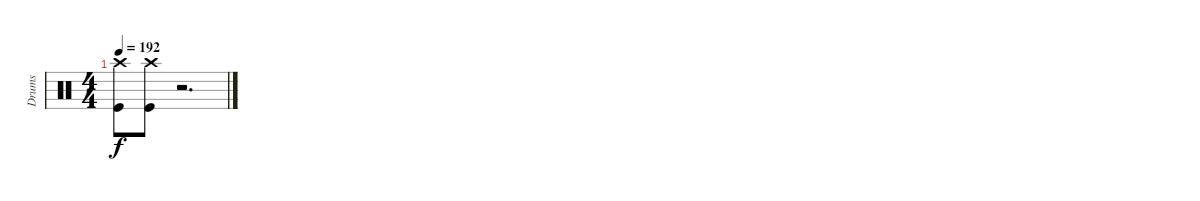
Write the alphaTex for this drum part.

\track ("Drums" "Drums") {instrument percussion}
\staff {score}
\articulation defaults
\ts (4 4)
\tempo 192
\clef neutral
\ks c
("Crash high (hit)" "Kick (hit)").8{dy f} ("Crash high (hit)" "Kick (hit)").8 r.2{d}
